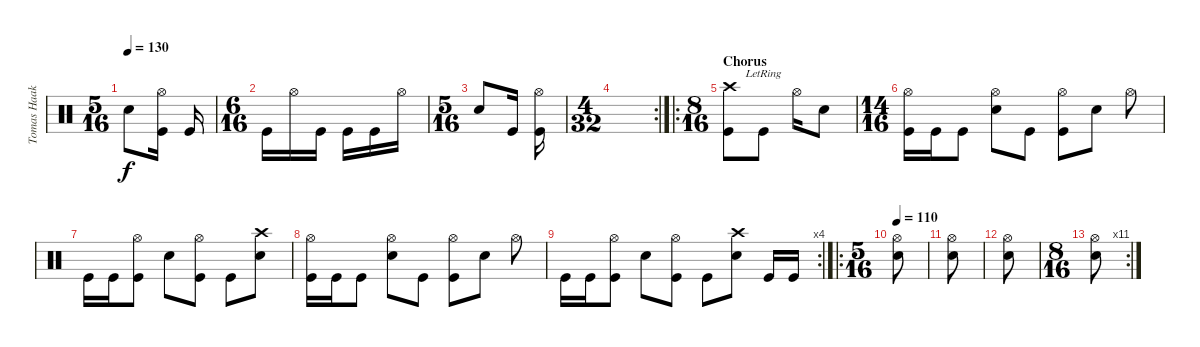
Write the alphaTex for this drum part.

\track ("Tomas Haake - Drums" "Tomas Haak") {instrument percussion}
\staff {score}
\articulation defaults
\ts (5 16)
\tempo 130
\clef neutral
\ks c "Electric Snare (hit)".8{dy f}
("Hi-Hat (open)" "Kick (hit)").16 "Kick (hit)".16 |
\ts (6 16)
"Kick (hit)".16 "Hi-Hat (open)".16 "Kick (hit)".16 "Kick (hit)".16 "Kick (hit)".16 "Hi-Hat (open)".16 |
\ts (5 16)
"Electric Snare (hit)".8 "Kick (hit)".16 ("Hi-Hat (open)" "Kick (hit)").16 |
\rc 2
\ts (4 32)
|
\ro
\ts (8 16)
\section ("" "Chorus")
("Crash high (hit)" "Kick (hit)").8 "Kick (hit)"{lr}.8 "Hi-Hat (open)".16 "Electric Snare (hit)".8 |
\ts (14 16)
("Hi-Hat (open)" "Kick (hit)").16 "Kick (hit)".16 "Kick (hit)".8 ("Hi-Hat (open)" "Electric Snare (hit)").8 "Kick (hit)".8 ("Hi-Hat (open)" "Kick (hit)").8 "Electric Snare (hit)".8 "Hi-Hat (open)".8 |
"Kick (hit)".16 "Kick (hit)".16 ("Hi-Hat (open)" "Kick (hit)").8 "Electric Snare (hit)".8 ("Hi-Hat (open)" "Kick (hit)").8 "Kick (hit)".8 ("Crash high (hit)" "Electric Snare (hit)").8 |
("Hi-Hat (open)" "Kick (hit)").16 "Kick (hit)".16 "Kick (hit)".8 ("Hi-Hat (open)" "Electric Snare (hit)").8 "Kick (hit)".8 ("Hi-Hat (open)" "Kick (hit)").8 "Electric Snare (hit)".8 "Hi-Hat (open)".8 |
\rc 4 "Kick (hit)".16 "Kick (hit)".16
("Hi-Hat (open)" "Kick (hit)").8 "Electric Snare (hit)".8 ("Hi-Hat (open)" "Kick (hit)").8 "Kick (hit)".8 ("Crash high (hit)" "Electric Snare (hit)").8 "Kick (hit)".16 "Kick (hit)".16 |
\ro
\ts (5 16)
\tempo 120
\tempo 110
("Electric Snare (hit)" "Hi-Hat (open)").8 |
("Electric Snare (hit)" "Hi-Hat (open)").8 |
("Electric Snare (hit)" "Hi-Hat (open)").8 |
\rc 11
\ts (8 16)
("Electric Snare (hit)" "Hi-Hat (open)").8
